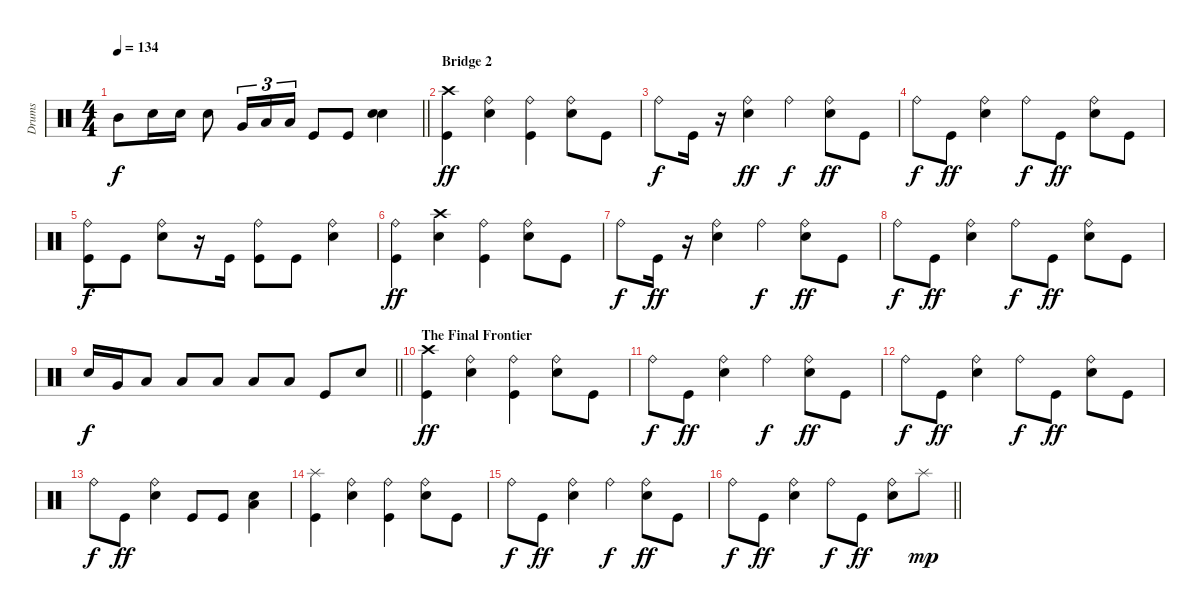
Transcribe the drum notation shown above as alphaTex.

\track ("Drums" "Drums") {instrument percussion}
\staff {score}
\articulation defaults
\ts (4 4)
\tempo 134
\clef neutral
\barLineRight lightlight
\ks c "Mid Tom (hit)".8{dy f} "Electric Snare (hit)".16 "Electric Snare (hit)".16 "Electric Snare (hit)".8 "Very Low Tom (hit)".16{tu (3 2)} "Low Floor Tom (hit)".16{tu (3 2)} "Low Floor Tom (hit)".16{tu (3 2)} "Kick (hit)".8 "Kick (hit)".8
("Snare (hit) 2" "Electric Snare (hit)").4 |
\section ("" "Bridge 2")
("Crash high (hit)" "Kick (hit)").4{dy ff} ("Ride (bell)" "Electric Snare (hit)").4 ("Ride (bell)" "Kick (hit)").4 ("Ride (bell)" "Electric Snare (hit)").8 "Kick (hit)".8 |
"Ride (bell)".8{dy f} "Kick (hit)".16 r.16 ("Ride (bell)" "Electric Snare (hit)").4{dy ff} "Ride (bell)".4{dy f} ("Ride (bell)" "Electric Snare (hit)").8{dy ff} "Kick (hit)".8 |
"Ride (bell)".8{dy f} "Kick (hit)".8{dy ff} ("Ride (bell)" "Electric Snare (hit)").4 "Ride (bell)".8{dy f} "Kick (hit)".8{dy ff} ("Ride (bell)" "Electric Snare (hit)").8 "Kick (hit)".8 |
("Ride (bell)" "Kick (hit)").8{dy f} "Kick (hit)".8 ("Ride (bell)" "Electric Snare (hit)").8 r.16 "Kick (hit)".16 ("Ride (bell)" "Kick (hit)").8 "Kick (hit)".8 ("Ride (bell)" "Electric Snare (hit)").4 |
("Ride (bell)" "Kick (hit)").4{dy ff} ("Crash high (hit)" "Electric Snare (hit)").4 ("Ride (bell)" "Kick (hit)").4 ("Ride (bell)" "Electric Snare (hit)").8 "Kick (hit)".8 |
"Ride (bell)".8{dy f} "Kick (hit)".16{dy ff} r.16 ("Ride (bell)" "Electric Snare (hit)").4 "Ride (bell)".4{dy f} ("Ride (bell)" "Electric Snare (hit)").8{dy ff} "Kick (hit)".8 |
"Ride (bell)".8{dy f} "Kick (hit)".8{dy ff} ("Ride (bell)" "Electric Snare (hit)").4 "Ride (bell)".8{dy f} "Kick (hit)".8{dy ff} ("Ride (bell)" "Electric Snare (hit)").8 "Kick (hit)".8 |
\barLineRight lightlight "Electric Snare (hit)".16{dy f} "Very Low Tom (hit)".16 "Low Floor Tom (hit)".8 "Low Floor Tom (hit)".8 "Low Floor Tom (hit)".8 "Low Floor Tom (hit)".8 "Low Floor Tom (hit)".8 "Kick (hit)".8 "Electric Snare (hit)".8
|
\section ("" "The Final Frontier")
("Crash high (hit)" "Kick (hit)").4{dy ff} ("Ride (bell)" "Electric Snare (hit)").4 ("Ride (bell)" "Kick (hit)").4 ("Ride (bell)" "Electric Snare (hit)").8 "Kick (hit)".8 |
"Ride (bell)".8{dy f} "Kick (hit)".8{dy ff} ("Ride (bell)" "Electric Snare (hit)").4 "Ride (bell)".4{dy f} ("Ride (bell)" "Electric Snare (hit)").8{dy ff} "Kick (hit)".8 |
"Ride (bell)".8{dy f} "Kick (hit)".8{dy ff} ("Ride (bell)" "Electric Snare (hit)").4 "Ride (bell)".8{dy f} "Kick (hit)".8{dy ff} ("Ride (bell)" "Electric Snare (hit)").8 "Kick (hit)".8 |
"Ride (bell)".8{dy f} "Kick (hit)".8{dy ff} ("Ride (bell)" "Electric Snare (hit)").4 "Kick (hit)".8 "Kick (hit)".8 ("Low Floor Tom (hit)" "Electric Snare (hit)").4 |
("Splash (hit)" "Kick (hit)").4 ("Ride (bell)" "Electric Snare (hit)").4 ("Ride (bell)" "Kick (hit)").4 ("Ride (bell)" "Electric Snare (hit)").8 "Kick (hit)".8 |
"Ride (bell)".8{dy f} "Kick (hit)".8{dy ff} ("Ride (bell)" "Electric Snare (hit)").4 "Ride (bell)".4{dy f} ("Ride (bell)" "Electric Snare (hit)").8{dy ff} "Kick (hit)".8 |
\barLineRight lightlight "Ride (bell)".8{dy f} "Kick (hit)".8{dy ff}
("Ride (bell)" "Electric Snare (hit)").4 "Ride (bell)".8{dy f} "Kick (hit)".8{dy ff} ("Ride (bell)" "Electric Snare (hit)").8 "Splash (hit)".8{dy mp}
